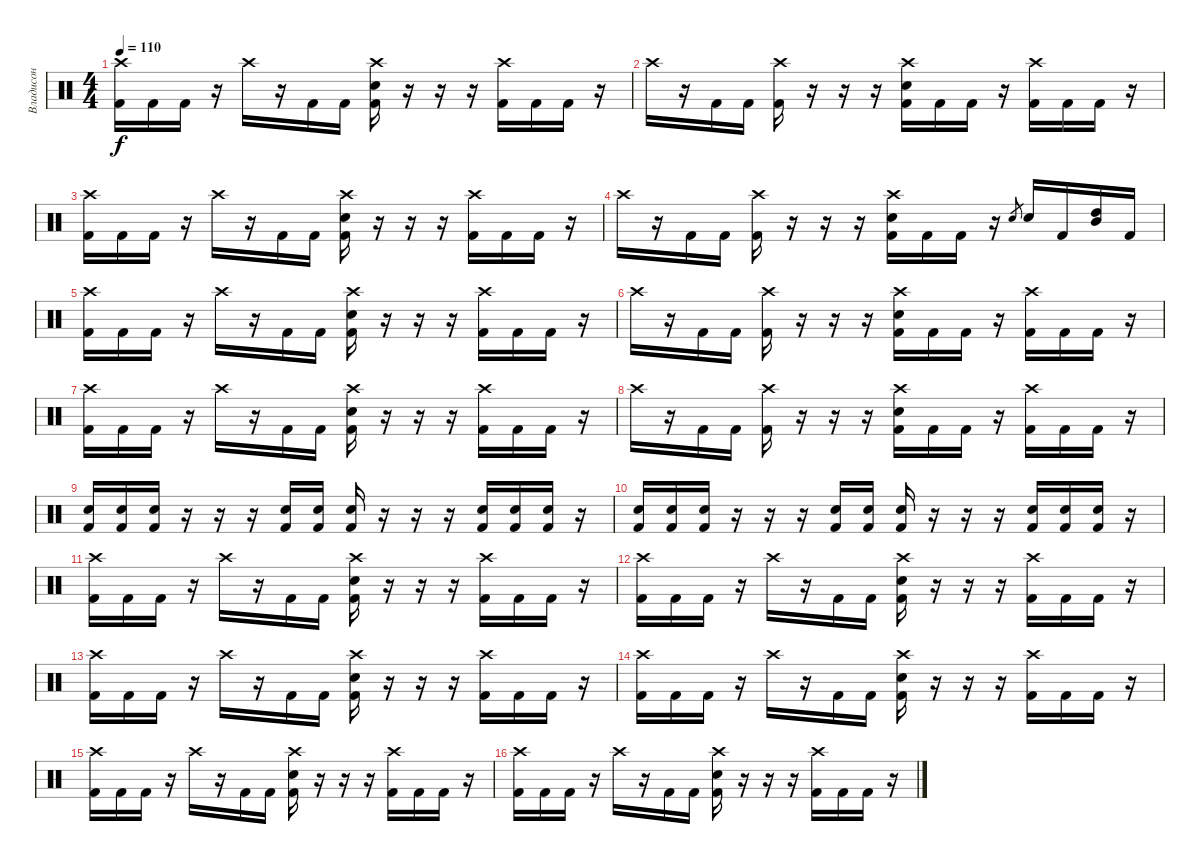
\track ("Владисон" "Владисон") {instrument percussion}
\staff
\articulation defaults
\ts (4 4)
\tempo 110
\clef neutral
\ks c
("Crash high (hit)" "Kick (hit) 2").16{dy f} "Kick (hit) 2".16 "Kick (hit) 2".16 r.16 "Crash high (hit)".16 r.16 "Kick (hit) 2".16 "Kick (hit) 2".16 ("Crash high (hit)" "Electric Snare (hit)" "Kick (hit) 2").16 r.16 r.16 r.16 ("Crash high (hit)" "Kick (hit) 2").16 "Kick (hit) 2".16 "Kick (hit) 2".16 r.16 |
"Crash high (hit)".16 r.16 "Kick (hit) 2".16 "Kick (hit) 2".16 ("Crash high (hit)" "Kick (hit) 2").16 r.16 r.16 r.16 ("Crash high (hit)" "Electric Snare (hit)" "Kick (hit) 2").16 "Kick (hit) 2".16 "Kick (hit) 2".16 r.16 ("Crash high (hit)" "Kick (hit) 2").16 "Kick (hit) 2".16 "Kick (hit) 2".16 r.16 |
("Crash high (hit)" "Kick (hit) 2").16 "Kick (hit) 2".16 "Kick (hit) 2".16 r.16 "Crash high (hit)".16 r.16 "Kick (hit) 2".16 "Kick (hit) 2".16 ("Crash high (hit)" "Electric Snare (hit)" "Kick (hit) 2").16 r.16 r.16 r.16 ("Crash high (hit)" "Kick (hit) 2").16 "Kick (hit) 2".16 "Kick (hit) 2".16 r.16 |
"Crash high (hit)".16 r.16 "Kick (hit) 2".16 "Kick (hit) 2".16 ("Crash high (hit)" "Kick (hit) 2").16 r.16 r.16 r.16 ("Crash high (hit)" "Electric Snare (hit)" "Kick (hit) 2").16 "Kick (hit) 2".16 "Kick (hit) 2".16 r.16 "Electric Snare (hit)".8{gr} "Electric Snare (hit)".16 "Kick (hit) 2".16 ("High Tom (hit)" "Mid Tom (hit)").16 "Kick (hit) 2".16 |
("Crash high (hit)" "Kick (hit) 2").16 "Kick (hit) 2".16 "Kick (hit) 2".16 r.16 "Crash high (hit)".16 r.16 "Kick (hit) 2".16 "Kick (hit) 2".16 ("Crash high (hit)" "Electric Snare (hit)" "Kick (hit) 2").16 r.16 r.16 r.16 ("Crash high (hit)" "Kick (hit) 2").16 "Kick (hit) 2".16 "Kick (hit) 2".16 r.16 |
"Crash high (hit)".16 r.16 "Kick (hit) 2".16 "Kick (hit) 2".16 ("Crash high (hit)" "Kick (hit) 2").16 r.16 r.16 r.16 ("Crash high (hit)" "Electric Snare (hit)" "Kick (hit) 2").16 "Kick (hit) 2".16 "Kick (hit) 2".16 r.16 ("Crash high (hit)" "Kick (hit) 2").16 "Kick (hit) 2".16 "Kick (hit) 2".16 r.16 |
("Crash high (hit)" "Kick (hit) 2").16 "Kick (hit) 2".16 "Kick (hit) 2".16 r.16 "Crash high (hit)".16 r.16 "Kick (hit) 2".16 "Kick (hit) 2".16 ("Crash high (hit)" "Electric Snare (hit)" "Kick (hit) 2").16 r.16 r.16 r.16 ("Crash high (hit)" "Kick (hit) 2").16 "Kick (hit) 2".16 "Kick (hit) 2".16 r.16 |
"Crash high (hit)".16 r.16 "Kick (hit) 2".16 "Kick (hit) 2".16 ("Crash high (hit)" "Kick (hit) 2").16 r.16 r.16 r.16 ("Crash high (hit)" "Electric Snare (hit)" "Kick (hit) 2").16 "Kick (hit) 2".16 "Kick (hit) 2".16 r.16 ("Crash high (hit)" "Kick (hit) 2").16 "Kick (hit) 2".16 "Kick (hit) 2".16 r.16 |
("Snare (hit) 2" "Kick (hit) 2").16 ("Snare (hit) 2" "Kick (hit) 2").16 ("Snare (hit) 2" "Kick (hit) 2").16 r.16 r.16 r.16 ("Snare (hit) 2" "Kick (hit) 2").16 ("Snare (hit) 2" "Kick (hit) 2").16 ("Snare (hit) 2" "Kick (hit) 2").16 r.16 r.16 r.16 ("Snare (hit) 2" "Kick (hit) 2").16 ("Snare (hit) 2" "Kick (hit) 2").16 ("Snare (hit) 2" "Kick (hit) 2").16 r.16 |
("Snare (hit) 2" "Kick (hit) 2").16 ("Snare (hit) 2" "Kick (hit) 2").16 ("Snare (hit) 2" "Kick (hit) 2").16 r.16 r.16 r.16 ("Snare (hit) 2" "Kick (hit) 2").16 ("Snare (hit) 2" "Kick (hit) 2").16 ("Snare (hit) 2" "Kick (hit) 2").16 r.16 r.16 r.16 ("Snare (hit) 2" "Kick (hit) 2").16 ("Snare (hit) 2" "Kick (hit) 2").16 ("Snare (hit) 2" "Kick (hit) 2").16 r.16 |
("Crash high (hit)" "Kick (hit) 2").16 "Kick (hit) 2".16 "Kick (hit) 2".16 r.16 "Crash high (hit)".16 r.16 "Kick (hit) 2".16 "Kick (hit) 2".16 ("Crash high (hit)" "Electric Snare (hit)" "Kick (hit) 2").16 r.16 r.16 r.16 ("Crash high (hit)" "Kick (hit) 2").16 "Kick (hit) 2".16 "Kick (hit) 2".16 r.16 |
("Crash high (hit)" "Kick (hit) 2").16 "Kick (hit) 2".16 "Kick (hit) 2".16 r.16 "Crash high (hit)".16 r.16 "Kick (hit) 2".16 "Kick (hit) 2".16 ("Crash high (hit)" "Electric Snare (hit)" "Kick (hit) 2").16 r.16 r.16 r.16 ("Crash high (hit)" "Kick (hit) 2").16 "Kick (hit) 2".16 "Kick (hit) 2".16 r.16 |
("Crash high (hit)" "Kick (hit) 2").16 "Kick (hit) 2".16 "Kick (hit) 2".16 r.16 "Crash high (hit)".16 r.16 "Kick (hit) 2".16 "Kick (hit) 2".16 ("Crash high (hit)" "Electric Snare (hit)" "Kick (hit) 2").16 r.16 r.16 r.16 ("Crash high (hit)" "Kick (hit) 2").16 "Kick (hit) 2".16 "Kick (hit) 2".16 r.16 |
("Crash high (hit)" "Kick (hit) 2").16 "Kick (hit) 2".16 "Kick (hit) 2".16 r.16 "Crash high (hit)".16 r.16 "Kick (hit) 2".16 "Kick (hit) 2".16 ("Crash high (hit)" "Electric Snare (hit)" "Kick (hit) 2").16 r.16 r.16 r.16 ("Crash high (hit)" "Kick (hit) 2").16 "Kick (hit) 2".16 "Kick (hit) 2".16 r.16 |
("Crash high (hit)" "Kick (hit) 2").16 "Kick (hit) 2".16 "Kick (hit) 2".16 r.16 "Crash high (hit)".16 r.16 "Kick (hit) 2".16 "Kick (hit) 2".16 ("Crash high (hit)" "Electric Snare (hit)" "Kick (hit) 2").16 r.16 r.16 r.16 ("Crash high (hit)" "Kick (hit) 2").16 "Kick (hit) 2".16 "Kick (hit) 2".16 r.16 |
("Crash high (hit)" "Kick (hit) 2").16 "Kick (hit) 2".16 "Kick (hit) 2".16 r.16 "Crash high (hit)".16 r.16 "Kick (hit) 2".16 "Kick (hit) 2".16 ("Crash high (hit)" "Electric Snare (hit)" "Kick (hit) 2").16 r.16 r.16 r.16 ("Crash high (hit)" "Kick (hit) 2").16 "Kick (hit) 2".16 "Kick (hit) 2".16 r.16
